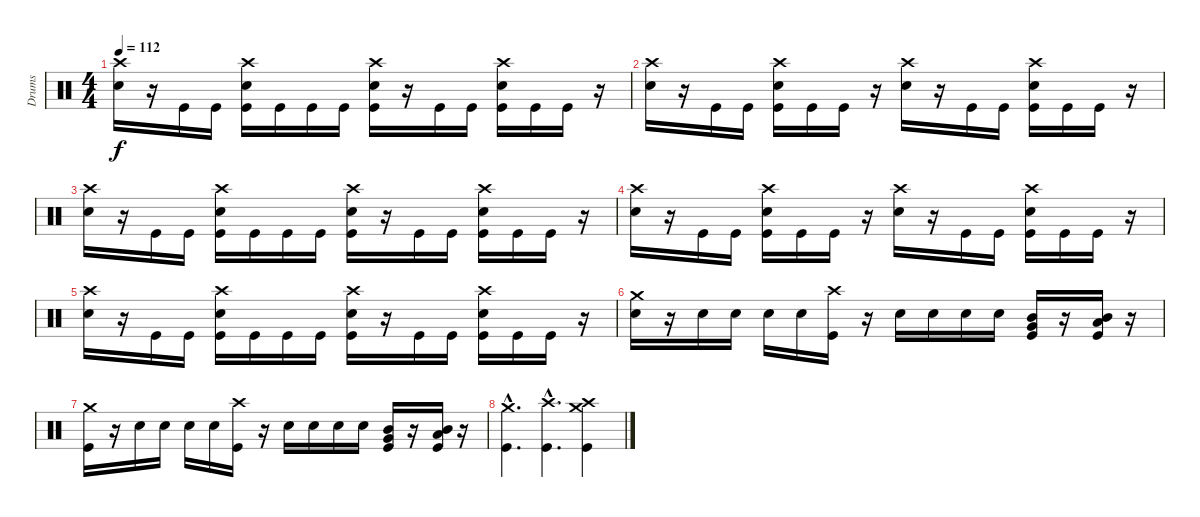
\track ("Drums" "Drums") {instrument percussion}
\staff {score}
\articulation defaults
\ts (4 4)
\tempo 112
\clef neutral
\ks c
("Crash high (hit)" "Snare (hit) 2").16{dy f} r.16 "Kick (hit)".16 "Kick (hit)".16 ("Crash high (hit)" "Snare (hit) 2" "Kick (hit)").16 "Kick (hit)".16 "Kick (hit)".16 "Kick (hit)".16 ("Crash high (hit)" "Snare (hit) 2" "Kick (hit)").16 r.16 "Kick (hit)".16 "Kick (hit)".16 ("Crash high (hit)" "Snare (hit) 2" "Kick (hit)").16 "Kick (hit)".16 "Kick (hit)".16 r.16 |
("Crash high (hit)" "Snare (hit) 2").16 r.16 "Kick (hit)".16 "Kick (hit)".16 ("Crash high (hit)" "Snare (hit) 2" "Kick (hit)").16 "Kick (hit)".16 "Kick (hit)".16 r.16 ("Crash high (hit)" "Snare (hit) 2").16 r.16 "Kick (hit)".16 "Kick (hit)".16 ("Crash high (hit)" "Snare (hit) 2" "Kick (hit)").16 "Kick (hit)".16 "Kick (hit)".16 r.16 |
("Crash high (hit)" "Snare (hit) 2").16 r.16 "Kick (hit)".16 "Kick (hit)".16 ("Crash high (hit)" "Snare (hit) 2" "Kick (hit)").16 "Kick (hit)".16 "Kick (hit)".16 "Kick (hit)".16 ("Crash high (hit)" "Snare (hit) 2" "Kick (hit)").16 r.16 "Kick (hit)".16 "Kick (hit)".16 ("Crash high (hit)" "Snare (hit) 2" "Kick (hit)").16 "Kick (hit)".16 "Kick (hit)".16 r.16 |
("Crash high (hit)" "Snare (hit) 2").16 r.16 "Kick (hit)".16 "Kick (hit)".16 ("Crash high (hit)" "Snare (hit) 2" "Kick (hit)").16 "Kick (hit)".16 "Kick (hit)".16 r.16 ("Crash high (hit)" "Snare (hit) 2").16 r.16 "Kick (hit)".16 "Kick (hit)".16 ("Crash high (hit)" "Snare (hit) 2" "Kick (hit)").16 "Kick (hit)".16 "Kick (hit)".16 r.16 |
("Crash high (hit)" "Snare (hit) 2").16 r.16 "Kick (hit)".16 "Kick (hit)".16 ("Crash high (hit)" "Snare (hit) 2" "Kick (hit)").16 "Kick (hit)".16 "Kick (hit)".16 "Kick (hit)".16 ("Crash high (hit)" "Snare (hit) 2" "Kick (hit)").16 r.16 "Kick (hit)".16 "Kick (hit)".16 ("Crash high (hit)" "Snare (hit) 2" "Kick (hit)").16 "Kick (hit)".16 "Kick (hit)".16 r.16 |
("Crash medium (hit)" "Snare (hit) 2").16 r.16 "Snare (hit) 2".16 "Snare (hit) 2".16 "Snare (hit) 2".16 "Snare (hit) 2".16 ("Crash high (hit)" "Kick (hit)").16 r.16 "Snare (hit) 2".16 "Snare (hit) 2".16 "Snare (hit) 2".16 "Snare (hit) 2".16 ("Mid Tom (hit)" "Very Low Tom (hit)" "Kick (hit)").16{bu 60} r.16 ("Mid Tom (hit)" "Low Floor Tom (hit)" "Kick (hit)").16{bu 60} r.16 |
("Crash medium (hit)" "Kick (hit)").16 r.16 "Snare (hit) 2".16 "Snare (hit) 2".16 "Snare (hit) 2".16 "Snare (hit) 2".16 ("Crash high (hit)" "Kick (hit)").16 r.16 "Snare (hit) 2".16 "Snare (hit) 2".16 "Snare (hit) 2".16 "Snare (hit) 2".16 ("Mid Tom (hit)" "Very Low Tom (hit)" "Kick (hit)").16{bu 60} r.16 ("Mid Tom (hit)" "Low Floor Tom (hit)" "Kick (hit)").16{bu 60} r.16 |
("Crash medium (hit)"{hac} "Kick (hit)"{hac}).4{d} ("Crash high (hit)"{hac} "Kick (hit)"{hac}).4{d} ("Crash medium (hit)" "Crash high (hit)" "Kick (hit)").4
